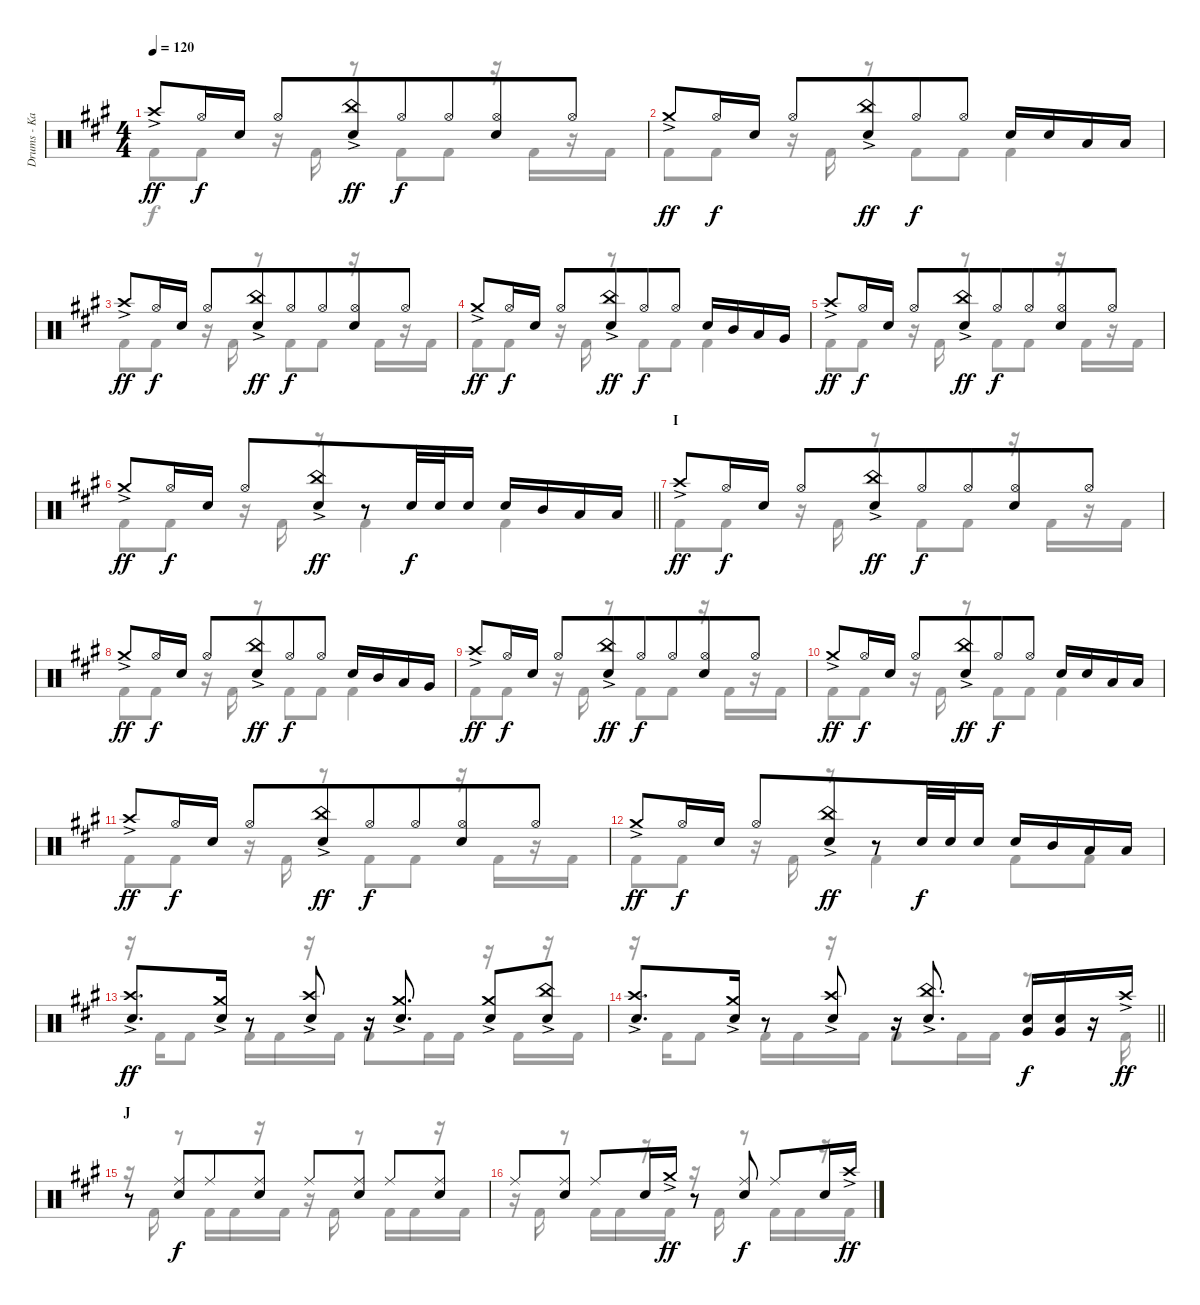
\track ("Drums - Kai" "Drums - Ka") {instrument percussion}
\staff {score}
\articulation defaults
\voice
\ts (4 4)
\tempo 120
\clef neutral
\ks a "Crash high (hit)"{ac}.8{dy ff} "Hi-Hat (open)".16{dy f} "Snare (hit) 2".16 "Hi-Hat (open)".8
("China (hit)"{ac} "Snare (hit) 2").8{dy ff beam merge} "Hi-Hat (open)".8{dy f} "Hi-Hat (open)".8{beam merge} ("Hi-Hat (open)" "Snare (hit) 2").8 "Hi-Hat (open)".8 |
"Crash medium (hit)"{ac}.8{dy ff} "Hi-Hat (open)".16{dy f} "Snare (hit) 2".16 "Hi-Hat (open)".8 ("China (hit)"{ac} "Snare (hit) 2").8{dy ff beam merge} "Hi-Hat (open)".8{dy f} "Hi-Hat (open)".8 "Snare (hit) 2".16 "Snare (hit) 2".16 "Low Tom (hit)".16 "Low Tom (hit)".16 |
"Crash high (hit)"{ac}.8{dy ff} "Hi-Hat (open)".16{dy f} "Snare (hit) 2".16 "Hi-Hat (open)".8 ("China (hit)"{ac} "Snare (hit) 2").8{dy ff beam merge} "Hi-Hat (open)".8{dy f} "Hi-Hat (open)".8{beam merge} ("Hi-Hat (open)" "Snare (hit) 2").8 "Hi-Hat (open)".8 |
"Crash medium (hit)"{ac}.8{dy ff} "Hi-Hat (open)".16{dy f} "Snare (hit) 2".16 "Hi-Hat (open)".8 ("China (hit)"{ac} "Snare (hit) 2").8{dy ff beam merge} "Hi-Hat (open)".8{dy f} "Hi-Hat (open)".8 "Snare (hit) 2".16 "Mid Tom (hit)".16 "Low Tom (hit)".16 "Very Low Tom (hit)".16 |
"Crash high (hit)"{ac}.8{dy ff} "Hi-Hat (open)".16{dy f} "Snare (hit) 2".16 "Hi-Hat (open)".8 ("China (hit)"{ac} "Snare (hit) 2").8{dy ff beam merge} "Hi-Hat (open)".8{dy f} "Hi-Hat (open)".8{beam merge} ("Hi-Hat (open)" "Snare (hit) 2").8 "Hi-Hat (open)".8 |
\barLineRight lightlight "Crash medium (hit)"{ac}.8{dy ff} "Hi-Hat (open)".16{dy f} "Snare (hit) 2".16 "Hi-Hat (open)".8
("China (hit)"{ac} "Snare (hit) 2").8{dy ff beam merge} r.8 "Snare (hit) 2".32{dy f} "Snare (hit) 2".32 "Snare (hit) 2".16 "Snare (hit) 2".16 "Mid Tom (hit)".16 "Low Tom (hit)".16 "Low Tom (hit)".16 |
\section ("" "I")
"Crash high (hit)"{ac}.8{dy ff} "Hi-Hat (open)".16{dy f} "Snare (hit) 2".16 "Hi-Hat (open)".8 ("China (hit)"{ac} "Snare (hit) 2").8{dy ff beam merge} "Hi-Hat (open)".8{dy f} "Hi-Hat (open)".8{beam merge} ("Hi-Hat (open)" "Snare (hit) 2").8 "Hi-Hat (open)".8 |
"Crash medium (hit)"{ac}.8{dy ff} "Hi-Hat (open)".16{dy f} "Snare (hit) 2".16 "Hi-Hat (open)".8 ("China (hit)"{ac} "Snare (hit) 2").8{dy ff beam merge} "Hi-Hat (open)".8{dy f} "Hi-Hat (open)".8 "Snare (hit) 2".16 "Mid Tom (hit)".16 "Low Tom (hit)".16 "Very Low Tom (hit)".16 |
"Crash high (hit)"{ac}.8{dy ff} "Hi-Hat (open)".16{dy f} "Snare (hit) 2".16 "Hi-Hat (open)".8 ("China (hit)"{ac} "Snare (hit) 2").8{dy ff beam merge} "Hi-Hat (open)".8{dy f} "Hi-Hat (open)".8{beam merge} ("Hi-Hat (open)" "Snare (hit) 2").8 "Hi-Hat (open)".8 |
"Crash medium (hit)"{ac}.8{dy ff} "Hi-Hat (open)".16{dy f} "Snare (hit) 2".16 "Hi-Hat (open)".8 ("China (hit)"{ac} "Snare (hit) 2").8{dy ff beam merge} "Hi-Hat (open)".8{dy f} "Hi-Hat (open)".8 "Snare (hit) 2".16 "Snare (hit) 2".16 "Low Tom (hit)".16 "Low Tom (hit)".16 |
"Crash high (hit)"{ac}.8{dy ff} "Hi-Hat (open)".16{dy f} "Snare (hit) 2".16 "Hi-Hat (open)".8 ("China (hit)"{ac} "Snare (hit) 2").8{dy ff beam merge} "Hi-Hat (open)".8{dy f} "Hi-Hat (open)".8{beam merge} ("Hi-Hat (open)" "Snare (hit) 2").8 "Hi-Hat (open)".8 |
"Crash medium (hit)"{ac}.8{dy ff} "Hi-Hat (open)".16{dy f} "Snare (hit) 2".16 "Hi-Hat (open)".8 ("China (hit)"{ac} "Snare (hit) 2").8{dy ff beam merge} r.8 "Snare (hit) 2".32{dy f} "Snare (hit) 2".32 "Snare (hit) 2".16 "Snare (hit) 2".16 "Mid Tom (hit)".16 "Low Tom (hit)".16 "Low Tom (hit)".16 |
("Crash high (hit)"{ac} "Snare (hit) 2").8{d dy ff} ("Crash medium (hit)"{ac} "Snare (hit) 2").16 r.8 ("Crash high (hit)"{ac} "Snare (hit) 2").8 r.16 ("Crash medium (hit)"{ac} "Snare (hit) 2").8{d} ("Crash medium (hit)"{ac} "Snare (hit) 2").8 ("China (hit)"{ac} "Snare (hit) 2").8 |
\barLineRight lightlight
("Crash high (hit)"{ac} "Snare (hit) 2").8{d} ("Crash medium (hit)"{ac} "Snare (hit) 2").16 r.8 ("Crash high (hit)"{ac} "Snare (hit) 2").8 r.16 ("China (hit)"{ac} "Snare (hit) 2").8{d} ("Very Low Tom (hit)" "Snare (hit) 2").16{dy f} ("Very Low Tom (hit)" "Snare (hit) 2").16 r.16 "Crash high (hit)"{ac}.16{dy ff} |
\section ("" "J")
r.8 ("Ride (middle)" "Snare (hit) 2").8{dy f beam merge} "Ride (middle)".8 ("Ride (middle)" "Snare (hit) 2").8 "Ride (middle)".8 ("Ride (middle)" "Snare (hit) 2").8 "Ride (middle)".8 ("Ride (middle)" "Snare (hit) 2").8 |
"Ride (middle)".8 ("Ride (middle)" "Snare (hit) 2").8 "Ride (middle)".8 "Snare (hit) 2".16 "Crash medium (hit)"{ac}.16{dy ff} r.8 ("Ride (middle)" "Snare (hit) 2").8{dy f} "Ride (middle)".8 "Snare (hit) 2".16 "Crash high (hit)"{ac}.16{dy ff}
\voice
\clef neutral
\ottava regular
\simile none
\ks a "Kick (hit) 2".8{dy f} "Kick (hit) 2".8
r.16 "Kick (hit) 2".16 r.8 "Kick (hit) 2".8 "Kick (hit) 2".8 r.16 "Kick (hit) 2".16 r.16 "Kick (hit) 2".16 |
"Kick (hit) 2".8 "Kick (hit) 2".8 r.16 "Kick (hit) 2".16 r.8 "Kick (hit) 2".8 "Kick (hit) 2".8 "Kick (hit) 2".4 |
"Kick (hit) 2".8 "Kick (hit) 2".8 r.16 "Kick (hit) 2".16 r.8 "Kick (hit) 2".8 "Kick (hit) 2".8 r.16 "Kick (hit) 2".16 r.16 "Kick (hit) 2".16 |
"Kick (hit) 2".8 "Kick (hit) 2".8 r.16 "Kick (hit) 2".16 r.8 "Kick (hit) 2".8 "Kick (hit) 2".8 "Kick (hit) 2".4 |
"Kick (hit) 2".8 "Kick (hit) 2".8 r.16 "Kick (hit) 2".16 r.8 "Kick (hit) 2".8 "Kick (hit) 2".8 r.16 "Kick (hit) 2".16 r.16 "Kick (hit) 2".16 |
\barLineRight lightlight "Kick (hit) 2".8 "Kick (hit) 2".8
r.16 "Kick (hit) 2".16 r.8 "Kick (hit) 2".4 "Kick (hit) 2".4 |
"Kick (hit) 2".8 "Kick (hit) 2".8 r.16 "Kick (hit) 2".16 r.8 "Kick (hit) 2".8 "Kick (hit) 2".8 r.16 "Kick (hit) 2".16 r.16 "Kick (hit) 2".16 |
"Kick (hit) 2".8 "Kick (hit) 2".8 r.16 "Kick (hit) 2".16 r.8 "Kick (hit) 2".8 "Kick (hit) 2".8 "Kick (hit) 2".4 |
"Kick (hit) 2".8 "Kick (hit) 2".8 r.16 "Kick (hit) 2".16 r.8 "Kick (hit) 2".8 "Kick (hit) 2".8 r.16 "Kick (hit) 2".16 r.16 "Kick (hit) 2".16 |
"Kick (hit) 2".8 "Kick (hit) 2".8 r.16 "Kick (hit) 2".16 r.8 "Kick (hit) 2".8 "Kick (hit) 2".8 "Kick (hit) 2".4 |
"Kick (hit) 2".8 "Kick (hit) 2".8 r.16 "Kick (hit) 2".16 r.8 "Kick (hit) 2".8 "Kick (hit) 2".8 r.16 "Kick (hit) 2".16 r.16 "Kick (hit) 2".16 |
"Kick (hit) 2".8 "Kick (hit) 2".8 r.16 "Kick (hit) 2".16 r.8 "Kick (hit) 2".4 "Kick (hit) 2".8 "Kick (hit) 2".8 |
r.16 "Kick (hit) 2".16 "Kick (hit) 2".8 "Kick (hit) 2".16 "Kick (hit) 2".16 r.16 "Kick (hit) 2".16 "Kick (hit) 2".8 "Kick (hit) 2".16 "Kick (hit) 2".16 r.16 "Kick (hit) 2".16 r.16 "Kick (hit) 2".16 |
\barLineRight lightlight
r.16 "Kick (hit) 2".16 "Kick (hit) 2".8 "Kick (hit) 2".16 "Kick (hit) 2".16 r.16 "Kick (hit) 2".16 "Kick (hit) 2".8 "Kick (hit) 2".16 "Kick (hit) 2".16 r.8{d} "Kick (hit) 2".16 |
r.16 "Kick (hit) 2".16 r.8 "Kick (hit) 2".16 "Kick (hit) 2".16 r.16 "Kick (hit) 2".16 r.16 "Kick (hit) 2".16 r.8 "Kick (hit) 2".16 "Kick (hit) 2".16 r.16 "Kick (hit) 2".16 |
r.16 "Kick (hit) 2".16 r.8 "Kick (hit) 2".16 "Kick (hit) 2".16 r.16 "Kick (hit) 2".16 r.16 "Kick (hit) 2".16 r.8 "Kick (hit) 2".16 "Kick (hit) 2".16 r.16 "Kick (hit) 2".16
